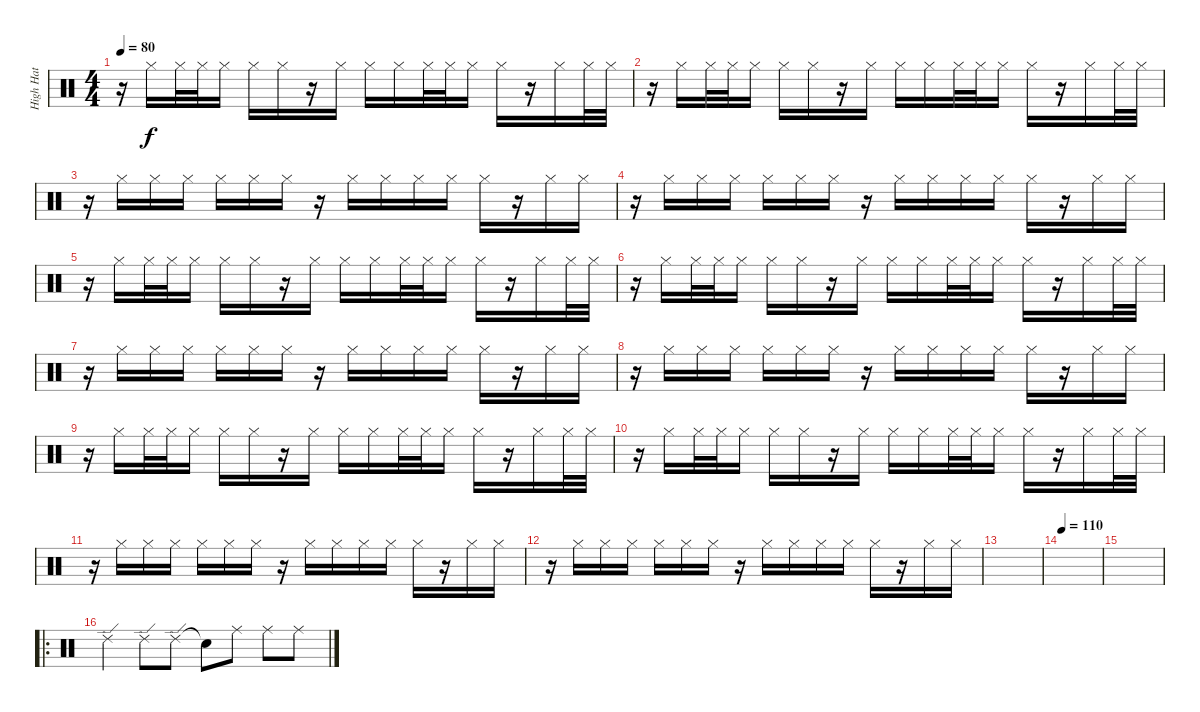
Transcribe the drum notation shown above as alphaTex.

\track ("High Hat" "High Hat") {instrument percussion}
\staff {score}
\articulation defaults
\ts (4 4)
\tempo 80
\clef neutral
\ks c
r.16{dy f} "Hi-Hat (closed)".16 "Hi-Hat (closed)".32 "Hi-Hat (closed)".32 "Hi-Hat (closed)".16 "Hi-Hat (closed)".16 "Hi-Hat (closed)".16 r.16 "Hi-Hat (closed)".16 "Hi-Hat (closed)".16 "Hi-Hat (closed)".16 "Hi-Hat (closed)".32 "Hi-Hat (closed)".32 "Hi-Hat (closed)".16 "Hi-Hat (closed)".16 r.16 "Hi-Hat (closed)".16 "Hi-Hat (closed)".32 "Hi-Hat (closed)".32 |
r.16 "Hi-Hat (closed)".16 "Hi-Hat (closed)".32 "Hi-Hat (closed)".32 "Hi-Hat (closed)".16 "Hi-Hat (closed)".16 "Hi-Hat (closed)".16 r.16 "Hi-Hat (closed)".16 "Hi-Hat (closed)".16 "Hi-Hat (closed)".16 "Hi-Hat (closed)".32 "Hi-Hat (closed)".32 "Hi-Hat (closed)".16 "Hi-Hat (closed)".16 r.16 "Hi-Hat (closed)".16 "Hi-Hat (closed)".32 "Hi-Hat (closed)".32 |
r.16 "Hi-Hat (closed)".16 "Hi-Hat (closed)".16 "Hi-Hat (closed)".16 "Hi-Hat (closed)".16 "Hi-Hat (closed)".16 "Hi-Hat (closed)".16 r.16 "Hi-Hat (closed)".16 "Hi-Hat (closed)".16 "Hi-Hat (closed)".16 "Hi-Hat (closed)".16 "Hi-Hat (closed)".16 r.16 "Hi-Hat (closed)".16 "Hi-Hat (closed)".16 |
r.16 "Hi-Hat (closed)".16 "Hi-Hat (closed)".16 "Hi-Hat (closed)".16 "Hi-Hat (closed)".16 "Hi-Hat (closed)".16 "Hi-Hat (closed)".16 r.16 "Hi-Hat (closed)".16 "Hi-Hat (closed)".16 "Hi-Hat (closed)".16 "Hi-Hat (closed)".16 "Hi-Hat (closed)".16 r.16 "Hi-Hat (closed)".16 "Hi-Hat (closed)".16 |
r.16 "Hi-Hat (closed)".16 "Hi-Hat (closed)".32 "Hi-Hat (closed)".32 "Hi-Hat (closed)".16 "Hi-Hat (closed)".16 "Hi-Hat (closed)".16 r.16 "Hi-Hat (closed)".16 "Hi-Hat (closed)".16 "Hi-Hat (closed)".16 "Hi-Hat (closed)".32 "Hi-Hat (closed)".32 "Hi-Hat (closed)".16 "Hi-Hat (closed)".16 r.16 "Hi-Hat (closed)".16 "Hi-Hat (closed)".32 "Hi-Hat (closed)".32 |
r.16 "Hi-Hat (closed)".16 "Hi-Hat (closed)".32 "Hi-Hat (closed)".32 "Hi-Hat (closed)".16 "Hi-Hat (closed)".16 "Hi-Hat (closed)".16 r.16 "Hi-Hat (closed)".16 "Hi-Hat (closed)".16 "Hi-Hat (closed)".16 "Hi-Hat (closed)".32 "Hi-Hat (closed)".32 "Hi-Hat (closed)".16 "Hi-Hat (closed)".16 r.16 "Hi-Hat (closed)".16 "Hi-Hat (closed)".32 "Hi-Hat (closed)".32 |
r.16 "Hi-Hat (closed)".16 "Hi-Hat (closed)".16 "Hi-Hat (closed)".16 "Hi-Hat (closed)".16 "Hi-Hat (closed)".16 "Hi-Hat (closed)".16 r.16 "Hi-Hat (closed)".16 "Hi-Hat (closed)".16 "Hi-Hat (closed)".16 "Hi-Hat (closed)".16 "Hi-Hat (closed)".16 r.16 "Hi-Hat (closed)".16 "Hi-Hat (closed)".16 |
r.16 "Hi-Hat (closed)".16 "Hi-Hat (closed)".16 "Hi-Hat (closed)".16 "Hi-Hat (closed)".16 "Hi-Hat (closed)".16 "Hi-Hat (closed)".16 r.16 "Hi-Hat (closed)".16 "Hi-Hat (closed)".16 "Hi-Hat (closed)".16 "Hi-Hat (closed)".16 "Hi-Hat (closed)".16 r.16 "Hi-Hat (closed)".16 "Hi-Hat (closed)".16 |
r.16 "Hi-Hat (closed)".16 "Hi-Hat (closed)".32 "Hi-Hat (closed)".32 "Hi-Hat (closed)".16 "Hi-Hat (closed)".16 "Hi-Hat (closed)".16 r.16 "Hi-Hat (closed)".16 "Hi-Hat (closed)".16 "Hi-Hat (closed)".16 "Hi-Hat (closed)".32 "Hi-Hat (closed)".32 "Hi-Hat (closed)".16 "Hi-Hat (closed)".16 r.16 "Hi-Hat (closed)".16 "Hi-Hat (closed)".32 "Hi-Hat (closed)".32 |
r.16 "Hi-Hat (closed)".16 "Hi-Hat (closed)".32 "Hi-Hat (closed)".32 "Hi-Hat (closed)".16 "Hi-Hat (closed)".16 "Hi-Hat (closed)".16 r.16 "Hi-Hat (closed)".16 "Hi-Hat (closed)".16 "Hi-Hat (closed)".16 "Hi-Hat (closed)".32 "Hi-Hat (closed)".32 "Hi-Hat (closed)".16 "Hi-Hat (closed)".16 r.16 "Hi-Hat (closed)".16 "Hi-Hat (closed)".32 "Hi-Hat (closed)".32 |
r.16 "Hi-Hat (closed)".16 "Hi-Hat (closed)".16 "Hi-Hat (closed)".16 "Hi-Hat (closed)".16 "Hi-Hat (closed)".16 "Hi-Hat (closed)".16 r.16 "Hi-Hat (closed)".16 "Hi-Hat (closed)".16 "Hi-Hat (closed)".16 "Hi-Hat (closed)".16 "Hi-Hat (closed)".16 r.16 "Hi-Hat (closed)".16 "Hi-Hat (closed)".16 |
r.16 "Hi-Hat (closed)".16 "Hi-Hat (closed)".16 "Hi-Hat (closed)".16 "Hi-Hat (closed)".16 "Hi-Hat (closed)".16 "Hi-Hat (closed)".16 r.16 "Hi-Hat (closed)".16 "Hi-Hat (closed)".16 "Hi-Hat (closed)".16 "Hi-Hat (closed)".16 "Hi-Hat (closed)".16 r.16 "Hi-Hat (closed)".16 "Hi-Hat (closed)".16 |
|
\tempo 110
|
|
\ro "Ride (edge) 2".4 "Ride (edge) 2".8 "Ride (edge) 2".8 "Snare (hit)"{t}.8 "Ride (middle)".8 "Ride (middle)".8 "Ride (middle)".8
